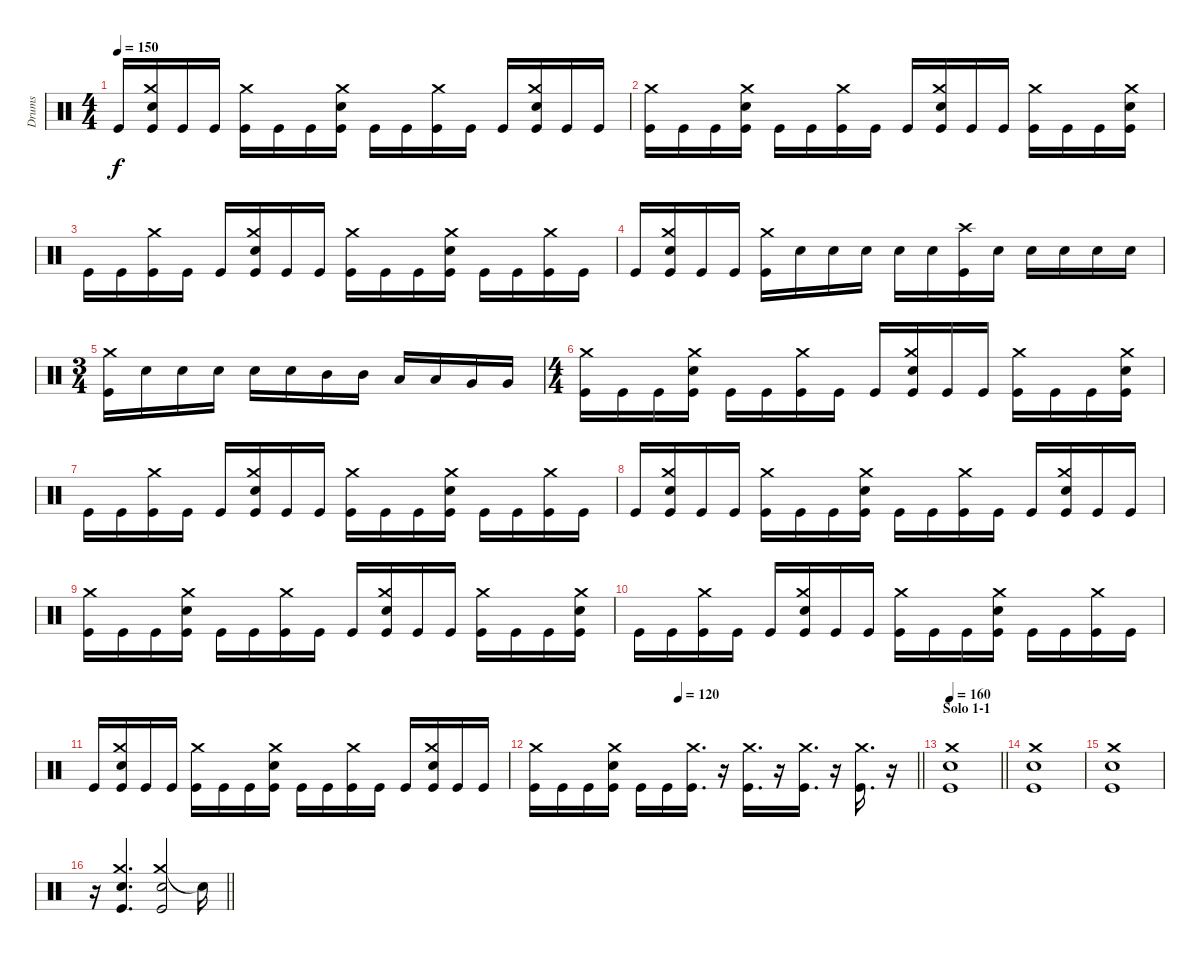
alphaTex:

\track ("Drums" "Drums") {instrument percussion}
\staff {score}
\articulation defaults
\ts (4 4)
\tempo 150
\clef neutral
\ks c "Kick (hit)".16{dy f}
("Crash medium (hit)" "Snare (hit) 2" "Kick (hit)").16 "Kick (hit)".16 "Kick (hit)".16 ("Crash medium (hit)" "Kick (hit)").16 "Kick (hit)".16 "Kick (hit)".16 ("Crash medium (hit)" "Snare (hit) 2" "Kick (hit)").16 "Kick (hit)".16 "Kick (hit)".16 ("Crash medium (hit)" "Kick (hit)").16 "Kick (hit)".16 "Kick (hit)".16 ("Crash medium (hit)" "Snare (hit) 2" "Kick (hit)").16 "Kick (hit)".16 "Kick (hit)".16 |
("Crash medium (hit)" "Kick (hit)").16 "Kick (hit)".16 "Kick (hit)".16 ("Crash medium (hit)" "Snare (hit) 2" "Kick (hit)").16 "Kick (hit)".16 "Kick (hit)".16 ("Crash medium (hit)" "Kick (hit)").16 "Kick (hit)".16 "Kick (hit)".16 ("Crash medium (hit)" "Snare (hit) 2" "Kick (hit)").16 "Kick (hit)".16 "Kick (hit)".16 ("Crash medium (hit)" "Kick (hit)").16 "Kick (hit)".16 "Kick (hit)".16 ("Crash medium (hit)" "Snare (hit) 2" "Kick (hit)").16 |
"Kick (hit)".16 "Kick (hit)".16 ("Crash medium (hit)" "Kick (hit)").16 "Kick (hit)".16 "Kick (hit)".16 ("Crash medium (hit)" "Snare (hit) 2" "Kick (hit)").16 "Kick (hit)".16 "Kick (hit)".16 ("Crash medium (hit)" "Kick (hit)").16 "Kick (hit)".16 "Kick (hit)".16 ("Crash medium (hit)" "Snare (hit) 2" "Kick (hit)").16 "Kick (hit)".16 "Kick (hit)".16 ("Crash medium (hit)" "Kick (hit)").16 "Kick (hit)".16 |
"Kick (hit)".16 ("Crash medium (hit)" "Snare (hit) 2" "Kick (hit)").16 "Kick (hit)".16 "Kick (hit)".16 ("Crash medium (hit)" "Kick (hit)").16 "Snare (hit) 2".16 "Snare (hit) 2".16 "Snare (hit) 2".16 "Snare (hit) 2".16 "Snare (hit) 2".16 ("Crash high (hit)" "Kick (hit)").16 "Snare (hit) 2".16 "Snare (hit) 2".16 "Snare (hit) 2".16 "Snare (hit) 2".16 "Snare (hit) 2".16 |
\ts (3 4)
("Crash medium (hit)" "Kick (hit)").16 "Snare (hit) 2".16 "Snare (hit) 2".16 "Snare (hit) 2".16 "Snare (hit) 2".16 "Snare (hit) 2".16 "Mid Tom (hit)".16 "Mid Tom (hit)".16 "Low Tom (hit)".16 "Low Tom (hit)".16 "Very Low Tom (hit)".16 "Very Low Tom (hit)".16 |
\ts (4 4)
("Crash medium (hit)" "Kick (hit)").16 "Kick (hit)".16 "Kick (hit)".16 ("Crash medium (hit)" "Snare (hit) 2" "Kick (hit)").16 "Kick (hit)".16 "Kick (hit)".16 ("Crash medium (hit)" "Kick (hit)").16 "Kick (hit)".16 "Kick (hit)".16 ("Crash medium (hit)" "Snare (hit) 2" "Kick (hit)").16 "Kick (hit)".16 "Kick (hit)".16 ("Crash medium (hit)" "Kick (hit)").16 "Kick (hit)".16 "Kick (hit)".16 ("Crash medium (hit)" "Snare (hit) 2" "Kick (hit)").16 |
"Kick (hit)".16 "Kick (hit)".16 ("Crash medium (hit)" "Kick (hit)").16 "Kick (hit)".16 "Kick (hit)".16 ("Crash medium (hit)" "Snare (hit) 2" "Kick (hit)").16 "Kick (hit)".16 "Kick (hit)".16 ("Crash medium (hit)" "Kick (hit)").16 "Kick (hit)".16 "Kick (hit)".16 ("Crash medium (hit)" "Snare (hit) 2" "Kick (hit)").16 "Kick (hit)".16 "Kick (hit)".16 ("Crash medium (hit)" "Kick (hit)").16 "Kick (hit)".16 |
"Kick (hit)".16 ("Crash medium (hit)" "Snare (hit) 2" "Kick (hit)").16 "Kick (hit)".16 "Kick (hit)".16 ("Crash medium (hit)" "Kick (hit)").16 "Kick (hit)".16 "Kick (hit)".16 ("Crash medium (hit)" "Snare (hit) 2" "Kick (hit)").16 "Kick (hit)".16 "Kick (hit)".16 ("Crash medium (hit)" "Kick (hit)").16 "Kick (hit)".16 "Kick (hit)".16 ("Crash medium (hit)" "Snare (hit) 2" "Kick (hit)").16 "Kick (hit)".16 "Kick (hit)".16 |
("Crash medium (hit)" "Kick (hit)").16 "Kick (hit)".16 "Kick (hit)".16 ("Crash medium (hit)" "Snare (hit) 2" "Kick (hit)").16 "Kick (hit)".16 "Kick (hit)".16 ("Crash medium (hit)" "Kick (hit)").16 "Kick (hit)".16 "Kick (hit)".16 ("Crash medium (hit)" "Snare (hit) 2" "Kick (hit)").16 "Kick (hit)".16 "Kick (hit)".16 ("Crash medium (hit)" "Kick (hit)").16 "Kick (hit)".16 "Kick (hit)".16 ("Crash medium (hit)" "Snare (hit) 2" "Kick (hit)").16 |
"Kick (hit)".16 "Kick (hit)".16 ("Crash medium (hit)" "Kick (hit)").16 "Kick (hit)".16 "Kick (hit)".16 ("Crash medium (hit)" "Snare (hit) 2" "Kick (hit)").16 "Kick (hit)".16 "Kick (hit)".16 ("Crash medium (hit)" "Kick (hit)").16 "Kick (hit)".16 "Kick (hit)".16 ("Crash medium (hit)" "Snare (hit) 2" "Kick (hit)").16 "Kick (hit)".16 "Kick (hit)".16 ("Crash medium (hit)" "Kick (hit)").16 "Kick (hit)".16 |
"Kick (hit)".16 ("Crash medium (hit)" "Snare (hit) 2" "Kick (hit)").16 "Kick (hit)".16 "Kick (hit)".16 ("Crash medium (hit)" "Kick (hit)").16 "Kick (hit)".16 "Kick (hit)".16 ("Crash medium (hit)" "Snare (hit) 2" "Kick (hit)").16 "Kick (hit)".16 "Kick (hit)".16 ("Crash medium (hit)" "Kick (hit)").16 "Kick (hit)".16 "Kick (hit)".16 ("Crash medium (hit)" "Snare (hit) 2" "Kick (hit)").16 "Kick (hit)".16 "Kick (hit)".16 |
\tempo (120 0.375)
\barLineRight lightlight
("Crash medium (hit)" "Kick (hit)").16 "Kick (hit)".16 "Kick (hit)".16 ("Crash medium (hit)" "Snare (hit) 2" "Kick (hit)").16 "Kick (hit)".16 "Kick (hit)".16 ("Crash medium (hit)" "Kick (hit)").16{d} r.16 ("Crash medium (hit)" "Kick (hit)").16{d} r.16 ("Crash medium (hit)" "Kick (hit)").16{d} r.16 ("Crash medium (hit)" "Kick (hit)").16{d} r.16 |
\section ("" "Solo 1-1")
\tempo 160
\barLineRight lightlight
("Crash medium (hit)" "Snare (hit) 2" "Kick (hit)").1 |
("Crash medium (hit)" "Snare (hit) 2" "Kick (hit)").1 |
("Crash medium (hit)" "Snare (hit) 2" "Kick (hit)").1 |
\barLineRight lightlight
r.16 ("Crash medium (hit)" "Snare (hit) 2" "Kick (hit)").4{d} ("Crash medium (hit)" "Snare (hit) 2" "Kick (hit)").2 "Snare (hit)"{t}.16
